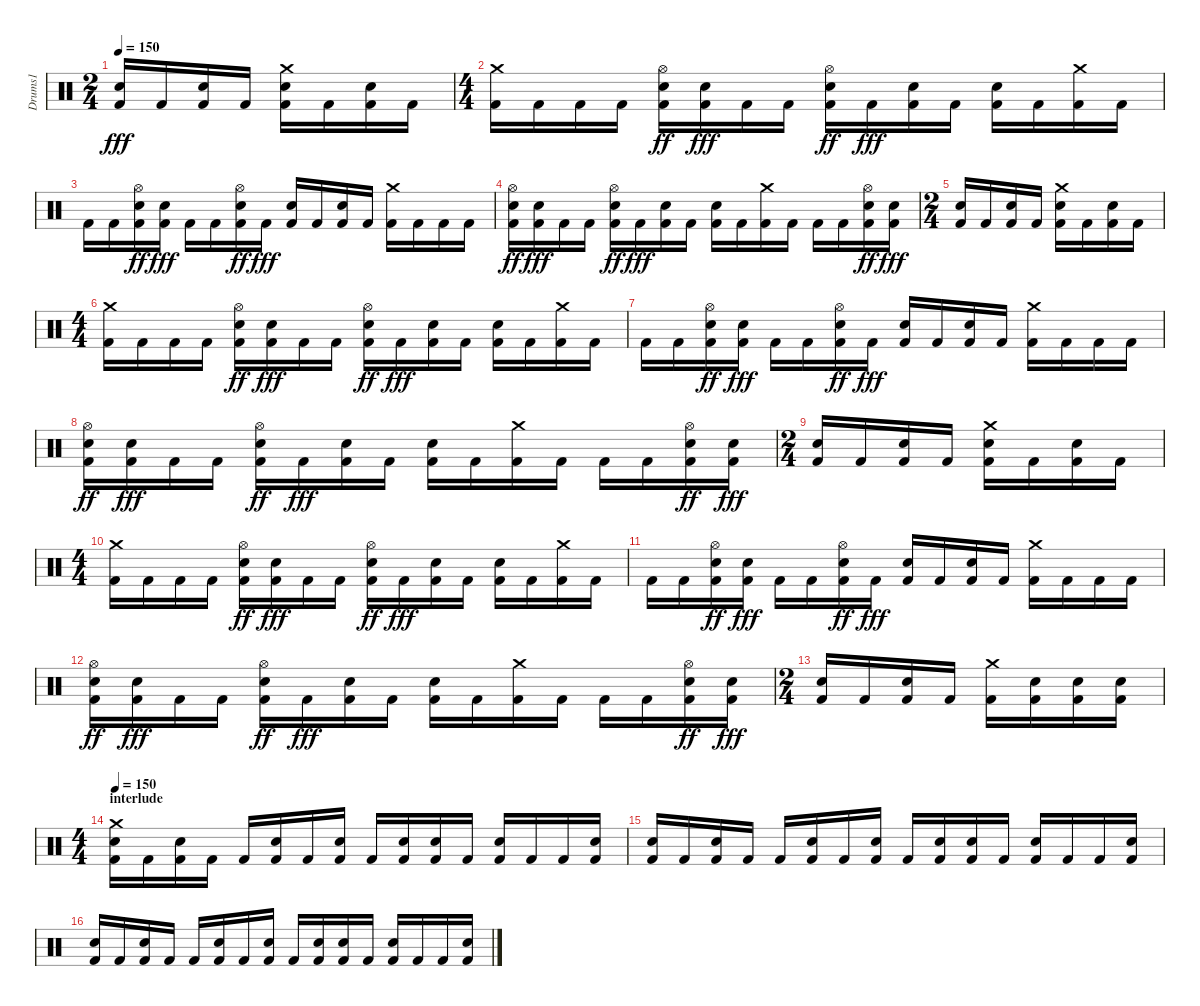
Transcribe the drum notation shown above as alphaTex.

\track ("Drums1" "Drums1") {instrument percussion}
\staff {score}
\articulation defaults
\ts (2 4)
\tempo 150
\clef neutral
\ks c
("Kick (hit) 2" "Electric Snare (hit)").16{dy fff} "Kick (hit) 2".16 ("Kick (hit) 2" "Electric Snare (hit)").16 "Kick (hit) 2".16 ("Kick (hit) 2" "Electric Snare (hit)" "Crash medium (hit)").16 "Kick (hit) 2".16 ("Kick (hit) 2" "Electric Snare (hit)").16 "Kick (hit) 2".16 |
\ts (4 4)
("Crash medium (hit)" "Kick (hit) 2").16 "Kick (hit) 2".16 "Kick (hit) 2".16 "Kick (hit) 2".16 ("Electric Snare (hit)" "Kick (hit) 2" "Hi-Hat (open)").16{dy ff} ("Electric Snare (hit)" "Kick (hit) 2").16{dy fff} "Kick (hit) 2".16 "Kick (hit) 2".16 ("Electric Snare (hit)" "Kick (hit) 2" "Hi-Hat (open)").16{dy ff} "Kick (hit) 2".16{dy fff} ("Electric Snare (hit)" "Kick (hit) 2").16 "Kick (hit) 2".16 ("Electric Snare (hit)" "Kick (hit) 2").16 "Kick (hit) 2".16 ("Crash medium (hit)" "Kick (hit) 2").16 "Kick (hit) 2".16 |
"Kick (hit) 2".16 "Kick (hit) 2".16 ("Electric Snare (hit)" "Kick (hit) 2" "Hi-Hat (open)").16{dy ff} ("Electric Snare (hit)" "Kick (hit) 2").16{dy fff} "Kick (hit) 2".16 "Kick (hit) 2".16 ("Electric Snare (hit)" "Kick (hit) 2" "Hi-Hat (open)").16{dy ff} "Kick (hit) 2".16{dy fff} ("Electric Snare (hit)" "Kick (hit) 2").16 "Kick (hit) 2".16 ("Electric Snare (hit)" "Kick (hit) 2").16 "Kick (hit) 2".16 ("Crash medium (hit)" "Kick (hit) 2").16 "Kick (hit) 2".16 "Kick (hit) 2".16 "Kick (hit) 2".16 |
("Electric Snare (hit)" "Kick (hit) 2" "Hi-Hat (open)").16{dy ff} ("Electric Snare (hit)" "Kick (hit) 2").16{dy fff} "Kick (hit) 2".16 "Kick (hit) 2".16 ("Electric Snare (hit)" "Kick (hit) 2" "Hi-Hat (open)").16{dy ff} "Kick (hit) 2".16{dy fff} ("Electric Snare (hit)" "Kick (hit) 2").16 "Kick (hit) 2".16 ("Electric Snare (hit)" "Kick (hit) 2").16 "Kick (hit) 2".16 ("Crash medium (hit)" "Kick (hit) 2").16 "Kick (hit) 2".16 "Kick (hit) 2".16 "Kick (hit) 2".16 ("Electric Snare (hit)" "Kick (hit) 2" "Hi-Hat (open)").16{dy ff} ("Electric Snare (hit)" "Kick (hit) 2").16{dy fff} |
\ts (2 4)
("Kick (hit) 2" "Electric Snare (hit)").16 "Kick (hit) 2".16 ("Kick (hit) 2" "Electric Snare (hit)").16 "Kick (hit) 2".16 ("Kick (hit) 2" "Electric Snare (hit)" "Crash medium (hit)").16 "Kick (hit) 2".16 ("Kick (hit) 2" "Electric Snare (hit)").16 "Kick (hit) 2".16 |
\ts (4 4)
("Crash medium (hit)" "Kick (hit) 2").16 "Kick (hit) 2".16 "Kick (hit) 2".16 "Kick (hit) 2".16 ("Electric Snare (hit)" "Kick (hit) 2" "Hi-Hat (open)").16{dy ff} ("Electric Snare (hit)" "Kick (hit) 2").16{dy fff} "Kick (hit) 2".16 "Kick (hit) 2".16 ("Electric Snare (hit)" "Kick (hit) 2" "Hi-Hat (open)").16{dy ff} "Kick (hit) 2".16{dy fff} ("Electric Snare (hit)" "Kick (hit) 2").16 "Kick (hit) 2".16 ("Electric Snare (hit)" "Kick (hit) 2").16 "Kick (hit) 2".16 ("Crash medium (hit)" "Kick (hit) 2").16 "Kick (hit) 2".16 |
"Kick (hit) 2".16 "Kick (hit) 2".16 ("Electric Snare (hit)" "Kick (hit) 2" "Hi-Hat (open)").16{dy ff} ("Electric Snare (hit)" "Kick (hit) 2").16{dy fff} "Kick (hit) 2".16 "Kick (hit) 2".16 ("Electric Snare (hit)" "Kick (hit) 2" "Hi-Hat (open)").16{dy ff} "Kick (hit) 2".16{dy fff} ("Electric Snare (hit)" "Kick (hit) 2").16 "Kick (hit) 2".16 ("Electric Snare (hit)" "Kick (hit) 2").16 "Kick (hit) 2".16 ("Crash medium (hit)" "Kick (hit) 2").16 "Kick (hit) 2".16 "Kick (hit) 2".16 "Kick (hit) 2".16 |
("Electric Snare (hit)" "Kick (hit) 2" "Hi-Hat (open)").16{dy ff} ("Electric Snare (hit)" "Kick (hit) 2").16{dy fff} "Kick (hit) 2".16 "Kick (hit) 2".16 ("Electric Snare (hit)" "Kick (hit) 2" "Hi-Hat (open)").16{dy ff} "Kick (hit) 2".16{dy fff} ("Electric Snare (hit)" "Kick (hit) 2").16 "Kick (hit) 2".16 ("Electric Snare (hit)" "Kick (hit) 2").16 "Kick (hit) 2".16 ("Crash medium (hit)" "Kick (hit) 2").16 "Kick (hit) 2".16 "Kick (hit) 2".16 "Kick (hit) 2".16 ("Electric Snare (hit)" "Kick (hit) 2" "Hi-Hat (open)").16{dy ff} ("Electric Snare (hit)" "Kick (hit) 2").16{dy fff} |
\ts (2 4)
("Kick (hit) 2" "Electric Snare (hit)").16 "Kick (hit) 2".16 ("Kick (hit) 2" "Electric Snare (hit)").16 "Kick (hit) 2".16 ("Kick (hit) 2" "Electric Snare (hit)" "Crash medium (hit)").16 "Kick (hit) 2".16 ("Kick (hit) 2" "Electric Snare (hit)").16 "Kick (hit) 2".16 |
\ts (4 4)
("Crash medium (hit)" "Kick (hit) 2").16 "Kick (hit) 2".16 "Kick (hit) 2".16 "Kick (hit) 2".16 ("Electric Snare (hit)" "Kick (hit) 2" "Hi-Hat (open)").16{dy ff} ("Electric Snare (hit)" "Kick (hit) 2").16{dy fff} "Kick (hit) 2".16 "Kick (hit) 2".16 ("Electric Snare (hit)" "Kick (hit) 2" "Hi-Hat (open)").16{dy ff} "Kick (hit) 2".16{dy fff} ("Electric Snare (hit)" "Kick (hit) 2").16 "Kick (hit) 2".16 ("Electric Snare (hit)" "Kick (hit) 2").16 "Kick (hit) 2".16 ("Crash medium (hit)" "Kick (hit) 2").16 "Kick (hit) 2".16 |
"Kick (hit) 2".16 "Kick (hit) 2".16 ("Electric Snare (hit)" "Kick (hit) 2" "Hi-Hat (open)").16{dy ff} ("Electric Snare (hit)" "Kick (hit) 2").16{dy fff} "Kick (hit) 2".16 "Kick (hit) 2".16 ("Electric Snare (hit)" "Kick (hit) 2" "Hi-Hat (open)").16{dy ff} "Kick (hit) 2".16{dy fff} ("Electric Snare (hit)" "Kick (hit) 2").16 "Kick (hit) 2".16 ("Electric Snare (hit)" "Kick (hit) 2").16 "Kick (hit) 2".16 ("Crash medium (hit)" "Kick (hit) 2").16 "Kick (hit) 2".16 "Kick (hit) 2".16 "Kick (hit) 2".16 |
("Electric Snare (hit)" "Kick (hit) 2" "Hi-Hat (open)").16{dy ff} ("Electric Snare (hit)" "Kick (hit) 2").16{dy fff} "Kick (hit) 2".16 "Kick (hit) 2".16 ("Electric Snare (hit)" "Kick (hit) 2" "Hi-Hat (open)").16{dy ff} "Kick (hit) 2".16{dy fff} ("Electric Snare (hit)" "Kick (hit) 2").16 "Kick (hit) 2".16 ("Electric Snare (hit)" "Kick (hit) 2").16 "Kick (hit) 2".16 ("Crash medium (hit)" "Kick (hit) 2").16 "Kick (hit) 2".16 "Kick (hit) 2".16 "Kick (hit) 2".16 ("Electric Snare (hit)" "Kick (hit) 2" "Hi-Hat (open)").16{dy ff} ("Electric Snare (hit)" "Kick (hit) 2").16{dy fff} |
\ts (2 4)
("Kick (hit) 2" "Electric Snare (hit)").16 "Kick (hit) 2".16 ("Kick (hit) 2" "Electric Snare (hit)").16 "Kick (hit) 2".16 ("Kick (hit) 2" "Crash medium (hit)").16 ("Kick (hit) 2" "Electric Snare (hit)").16 ("Kick (hit) 2" "Electric Snare (hit)").16 ("Kick (hit) 2" "Electric Snare (hit)").16 |
\ts (4 4)
\section ("" "interlude")
\tempo 150
("Kick (hit) 2" "Electric Snare (hit)" "Crash medium (hit)").16 "Kick (hit) 2".16 ("Kick (hit) 2" "Electric Snare (hit)").16 "Kick (hit) 2".16 "Kick (hit) 2".16 ("Kick (hit) 2" "Electric Snare (hit)").16 "Kick (hit) 2".16 ("Kick (hit) 2" "Electric Snare (hit)").16 "Kick (hit) 2".16 ("Kick (hit) 2" "Electric Snare (hit)").16 ("Kick (hit) 2" "Electric Snare (hit)").16 "Kick (hit) 2".16 ("Kick (hit) 2" "Electric Snare (hit)").16 "Kick (hit) 2".16 "Kick (hit) 2".16 ("Kick (hit) 2" "Electric Snare (hit)").16 |
("Kick (hit) 2" "Electric Snare (hit)").16 "Kick (hit) 2".16 ("Kick (hit) 2" "Electric Snare (hit)").16 "Kick (hit) 2".16 "Kick (hit) 2".16 ("Kick (hit) 2" "Electric Snare (hit)").16 "Kick (hit) 2".16 ("Kick (hit) 2" "Electric Snare (hit)").16 "Kick (hit) 2".16 ("Kick (hit) 2" "Electric Snare (hit)").16 ("Kick (hit) 2" "Electric Snare (hit)").16 "Kick (hit) 2".16 ("Kick (hit) 2" "Electric Snare (hit)").16 "Kick (hit) 2".16 "Kick (hit) 2".16 ("Kick (hit) 2" "Electric Snare (hit)").16 |
("Kick (hit) 2" "Electric Snare (hit)").16 "Kick (hit) 2".16 ("Kick (hit) 2" "Electric Snare (hit)").16 "Kick (hit) 2".16 "Kick (hit) 2".16 ("Kick (hit) 2" "Electric Snare (hit)").16 "Kick (hit) 2".16 ("Kick (hit) 2" "Electric Snare (hit)").16 "Kick (hit) 2".16 ("Kick (hit) 2" "Electric Snare (hit)").16 ("Kick (hit) 2" "Electric Snare (hit)").16 "Kick (hit) 2".16 ("Kick (hit) 2" "Electric Snare (hit)").16 "Kick (hit) 2".16 "Kick (hit) 2".16 ("Kick (hit) 2" "Electric Snare (hit)").16
